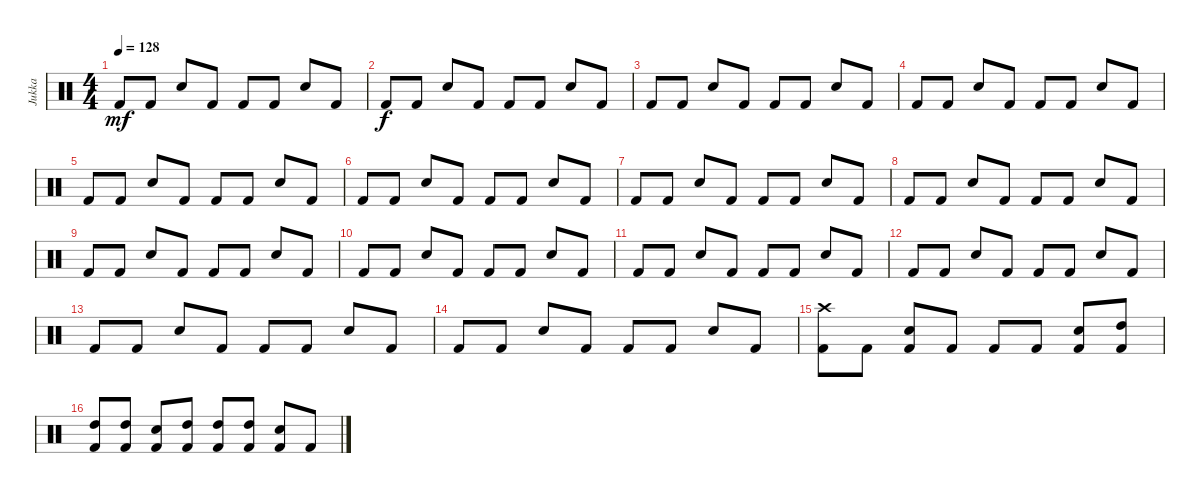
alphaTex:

\track ("Jukka" "Jukka") {instrument percussion}
\staff {score}
\articulation defaults
\ts (4 4)
\tempo 128
\clef neutral
\ks c "Kick (hit) 2".8{dy mf} "Kick (hit) 2".8 "Electric Snare (hit)".8 "Kick (hit) 2".8 "Kick (hit) 2".8 "Kick (hit) 2".8 "Electric Snare (hit)".8 "Kick (hit) 2".8
|
"Kick (hit) 2".8{dy f} "Kick (hit) 2".8 "Electric Snare (hit)".8 "Kick (hit) 2".8 "Kick (hit) 2".8 "Kick (hit) 2".8 "Electric Snare (hit)".8 "Kick (hit) 2".8 |
"Kick (hit) 2".8 "Kick (hit) 2".8 "Electric Snare (hit)".8 "Kick (hit) 2".8 "Kick (hit) 2".8 "Kick (hit) 2".8 "Electric Snare (hit)".8 "Kick (hit) 2".8 |
"Kick (hit) 2".8 "Kick (hit) 2".8 "Electric Snare (hit)".8 "Kick (hit) 2".8 "Kick (hit) 2".8 "Kick (hit) 2".8 "Electric Snare (hit)".8 "Kick (hit) 2".8 |
"Kick (hit) 2".8 "Kick (hit) 2".8 "Electric Snare (hit)".8 "Kick (hit) 2".8 "Kick (hit) 2".8 "Kick (hit) 2".8 "Electric Snare (hit)".8 "Kick (hit) 2".8 |
"Kick (hit) 2".8 "Kick (hit) 2".8 "Electric Snare (hit)".8 "Kick (hit) 2".8 "Kick (hit) 2".8 "Kick (hit) 2".8 "Electric Snare (hit)".8 "Kick (hit) 2".8 |
"Kick (hit) 2".8 "Kick (hit) 2".8 "Electric Snare (hit)".8 "Kick (hit) 2".8 "Kick (hit) 2".8 "Kick (hit) 2".8 "Electric Snare (hit)".8 "Kick (hit) 2".8 |
"Kick (hit) 2".8 "Kick (hit) 2".8 "Electric Snare (hit)".8 "Kick (hit) 2".8 "Kick (hit) 2".8 "Kick (hit) 2".8 "Electric Snare (hit)".8 "Kick (hit) 2".8 |
"Kick (hit) 2".8 "Kick (hit) 2".8 "Electric Snare (hit)".8 "Kick (hit) 2".8 "Kick (hit) 2".8 "Kick (hit) 2".8 "Electric Snare (hit)".8 "Kick (hit) 2".8 |
"Kick (hit) 2".8 "Kick (hit) 2".8 "Electric Snare (hit)".8 "Kick (hit) 2".8 "Kick (hit) 2".8 "Kick (hit) 2".8 "Electric Snare (hit)".8 "Kick (hit) 2".8 |
"Kick (hit) 2".8 "Kick (hit) 2".8 "Electric Snare (hit)".8 "Kick (hit) 2".8 "Kick (hit) 2".8 "Kick (hit) 2".8 "Electric Snare (hit)".8 "Kick (hit) 2".8 |
"Kick (hit) 2".8 "Kick (hit) 2".8 "Electric Snare (hit)".8 "Kick (hit) 2".8 "Kick (hit) 2".8 "Kick (hit) 2".8 "Electric Snare (hit)".8 "Kick (hit) 2".8 |
"Kick (hit) 2".8 "Kick (hit) 2".8 "Electric Snare (hit)".8 "Kick (hit) 2".8 "Kick (hit) 2".8 "Kick (hit) 2".8 "Electric Snare (hit)".8 "Kick (hit) 2".8 |
"Kick (hit) 2".8 "Kick (hit) 2".8 "Electric Snare (hit)".8 "Kick (hit) 2".8 "Kick (hit) 2".8 "Kick (hit) 2".8 "Electric Snare (hit)".8 "Kick (hit) 2".8 |
("Crash high (hit)" "Kick (hit) 2").8 "Kick (hit) 2".8 ("Electric Snare (hit)" "Kick (hit) 2").8 "Kick (hit) 2".8 "Kick (hit) 2".8 "Kick (hit) 2".8 ("Electric Snare (hit)" "Kick (hit) 2").8 ("Kick (hit) 2" "High Tom (hit)").8 |
("Kick (hit) 2" "High Tom (hit)").8 ("Kick (hit) 2" "High Tom (hit)").8 ("Electric Snare (hit)" "Kick (hit) 2").8 ("Kick (hit) 2" "High Tom (hit)").8 ("Kick (hit) 2" "High Tom (hit)").8 ("Kick (hit) 2" "High Tom (hit)").8 ("Electric Snare (hit)" "Kick (hit) 2").8 "Kick (hit) 2".8
